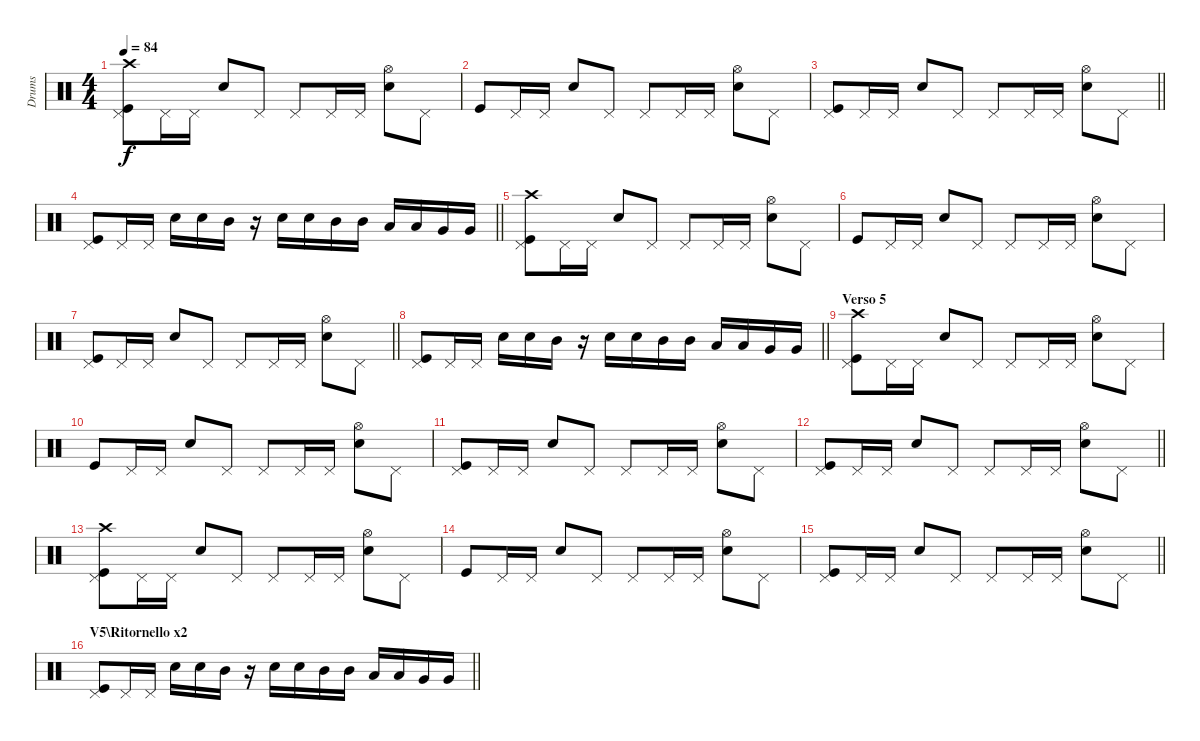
\track ("Drums" "Drums") {instrument percussion}
\staff {score}
\articulation defaults
\ts (4 4)
\tempo 84
\clef neutral
\ks c
("Pedal Hi-Hat (hit)" "Kick (hit)" "Crash high (hit)").8{dy f} "Pedal Hi-Hat (hit)".16 "Pedal Hi-Hat (hit)".16 "Snare (hit) 2".8 "Pedal Hi-Hat (hit)".8 "Pedal Hi-Hat (hit)".8 "Pedal Hi-Hat (hit)".16 "Pedal Hi-Hat (hit)".16 ("Hi-Hat (open)" "Snare (hit) 2").8 "Pedal Hi-Hat (hit)".8 |
"Kick (hit)".8 "Pedal Hi-Hat (hit)".16 "Pedal Hi-Hat (hit)".16 "Snare (hit) 2".8 "Pedal Hi-Hat (hit)".8 "Pedal Hi-Hat (hit)".8 "Pedal Hi-Hat (hit)".16 "Pedal Hi-Hat (hit)".16 ("Hi-Hat (open)" "Snare (hit) 2").8 "Pedal Hi-Hat (hit)".8 |
\barLineRight lightlight
("Pedal Hi-Hat (hit)" "Kick (hit)").8 "Pedal Hi-Hat (hit)".16 "Pedal Hi-Hat (hit)".16 "Snare (hit) 2".8 "Pedal Hi-Hat (hit)".8 "Pedal Hi-Hat (hit)".8 "Pedal Hi-Hat (hit)".16 "Pedal Hi-Hat (hit)".16 ("Hi-Hat (open)" "Snare (hit) 2").8 "Pedal Hi-Hat (hit)".8 |
\barLineRight lightlight
("Pedal Hi-Hat (hit)" "Kick (hit)").8 "Pedal Hi-Hat (hit)".16 "Pedal Hi-Hat (hit)".16 "Snare (hit) 2".16 "Snare (hit) 2".16 "Mid Tom (hit)".16 r.16 "Snare (hit) 2".16 "Snare (hit) 2".16 "Mid Tom (hit)".16 "Mid Tom (hit)".16 "Low Tom (hit)".16 "Low Tom (hit)".16 "Very Low Tom (hit)".16 "Very Low Tom (hit)".16 |
("Pedal Hi-Hat (hit)" "Kick (hit)" "Crash high (hit)").8 "Pedal Hi-Hat (hit)".16 "Pedal Hi-Hat (hit)".16 "Snare (hit) 2".8 "Pedal Hi-Hat (hit)".8 "Pedal Hi-Hat (hit)".8 "Pedal Hi-Hat (hit)".16 "Pedal Hi-Hat (hit)".16 ("Hi-Hat (open)" "Snare (hit) 2").8 "Pedal Hi-Hat (hit)".8 |
"Kick (hit)".8 "Pedal Hi-Hat (hit)".16 "Pedal Hi-Hat (hit)".16 "Snare (hit) 2".8 "Pedal Hi-Hat (hit)".8 "Pedal Hi-Hat (hit)".8 "Pedal Hi-Hat (hit)".16 "Pedal Hi-Hat (hit)".16 ("Hi-Hat (open)" "Snare (hit) 2").8 "Pedal Hi-Hat (hit)".8 |
\barLineRight lightlight
("Pedal Hi-Hat (hit)" "Kick (hit)").8 "Pedal Hi-Hat (hit)".16 "Pedal Hi-Hat (hit)".16 "Snare (hit) 2".8 "Pedal Hi-Hat (hit)".8 "Pedal Hi-Hat (hit)".8 "Pedal Hi-Hat (hit)".16 "Pedal Hi-Hat (hit)".16 ("Hi-Hat (open)" "Snare (hit) 2").8 "Pedal Hi-Hat (hit)".8 |
\barLineRight lightlight
("Pedal Hi-Hat (hit)" "Kick (hit)").8 "Pedal Hi-Hat (hit)".16 "Pedal Hi-Hat (hit)".16 "Snare (hit) 2".16 "Snare (hit) 2".16 "Mid Tom (hit)".16 r.16 "Snare (hit) 2".16 "Snare (hit) 2".16 "Mid Tom (hit)".16 "Mid Tom (hit)".16 "Low Tom (hit)".16 "Low Tom (hit)".16 "Very Low Tom (hit)".16 "Very Low Tom (hit)".16 |
\section ("" "Verso 5")
("Pedal Hi-Hat (hit)" "Kick (hit)" "Crash high (hit)").8 "Pedal Hi-Hat (hit)".16 "Pedal Hi-Hat (hit)".16 "Snare (hit) 2".8 "Pedal Hi-Hat (hit)".8 "Pedal Hi-Hat (hit)".8 "Pedal Hi-Hat (hit)".16 "Pedal Hi-Hat (hit)".16 ("Hi-Hat (open)" "Snare (hit) 2").8 "Pedal Hi-Hat (hit)".8 |
"Kick (hit)".8 "Pedal Hi-Hat (hit)".16 "Pedal Hi-Hat (hit)".16 "Snare (hit) 2".8 "Pedal Hi-Hat (hit)".8 "Pedal Hi-Hat (hit)".8 "Pedal Hi-Hat (hit)".16 "Pedal Hi-Hat (hit)".16 ("Hi-Hat (open)" "Snare (hit) 2").8 "Pedal Hi-Hat (hit)".8 |
("Pedal Hi-Hat (hit)" "Kick (hit)").8 "Pedal Hi-Hat (hit)".16 "Pedal Hi-Hat (hit)".16 "Snare (hit) 2".8 "Pedal Hi-Hat (hit)".8 "Pedal Hi-Hat (hit)".8 "Pedal Hi-Hat (hit)".16 "Pedal Hi-Hat (hit)".16 ("Hi-Hat (open)" "Snare (hit) 2").8 "Pedal Hi-Hat (hit)".8 |
\barLineRight lightlight
("Pedal Hi-Hat (hit)" "Kick (hit)").8 "Pedal Hi-Hat (hit)".16 "Pedal Hi-Hat (hit)".16 "Snare (hit) 2".8 "Pedal Hi-Hat (hit)".8 "Pedal Hi-Hat (hit)".8 "Pedal Hi-Hat (hit)".16 "Pedal Hi-Hat (hit)".16 ("Hi-Hat (open)" "Snare (hit) 2").8 "Pedal Hi-Hat (hit)".8 |
("Pedal Hi-Hat (hit)" "Kick (hit)" "Crash high (hit)").8 "Pedal Hi-Hat (hit)".16 "Pedal Hi-Hat (hit)".16 "Snare (hit) 2".8 "Pedal Hi-Hat (hit)".8 "Pedal Hi-Hat (hit)".8 "Pedal Hi-Hat (hit)".16 "Pedal Hi-Hat (hit)".16 ("Hi-Hat (open)" "Snare (hit) 2").8 "Pedal Hi-Hat (hit)".8 |
"Kick (hit)".8 "Pedal Hi-Hat (hit)".16 "Pedal Hi-Hat (hit)".16 "Snare (hit) 2".8 "Pedal Hi-Hat (hit)".8 "Pedal Hi-Hat (hit)".8 "Pedal Hi-Hat (hit)".16 "Pedal Hi-Hat (hit)".16 ("Hi-Hat (open)" "Snare (hit) 2").8 "Pedal Hi-Hat (hit)".8 |
\barLineRight lightlight
("Pedal Hi-Hat (hit)" "Kick (hit)").8 "Pedal Hi-Hat (hit)".16 "Pedal Hi-Hat (hit)".16 "Snare (hit) 2".8 "Pedal Hi-Hat (hit)".8 "Pedal Hi-Hat (hit)".8 "Pedal Hi-Hat (hit)".16 "Pedal Hi-Hat (hit)".16 ("Hi-Hat (open)" "Snare (hit) 2").8 "Pedal Hi-Hat (hit)".8 |
\section ("" "V5\\Ritornello x2")
\barLineRight lightlight
("Pedal Hi-Hat (hit)" "Kick (hit)").8 "Pedal Hi-Hat (hit)".16 "Pedal Hi-Hat (hit)".16 "Snare (hit) 2".16 "Snare (hit) 2".16 "Mid Tom (hit)".16 r.16 "Snare (hit) 2".16 "Snare (hit) 2".16 "Mid Tom (hit)".16 "Mid Tom (hit)".16 "Low Tom (hit)".16 "Low Tom (hit)".16 "Very Low Tom (hit)".16 "Very Low Tom (hit)".16
